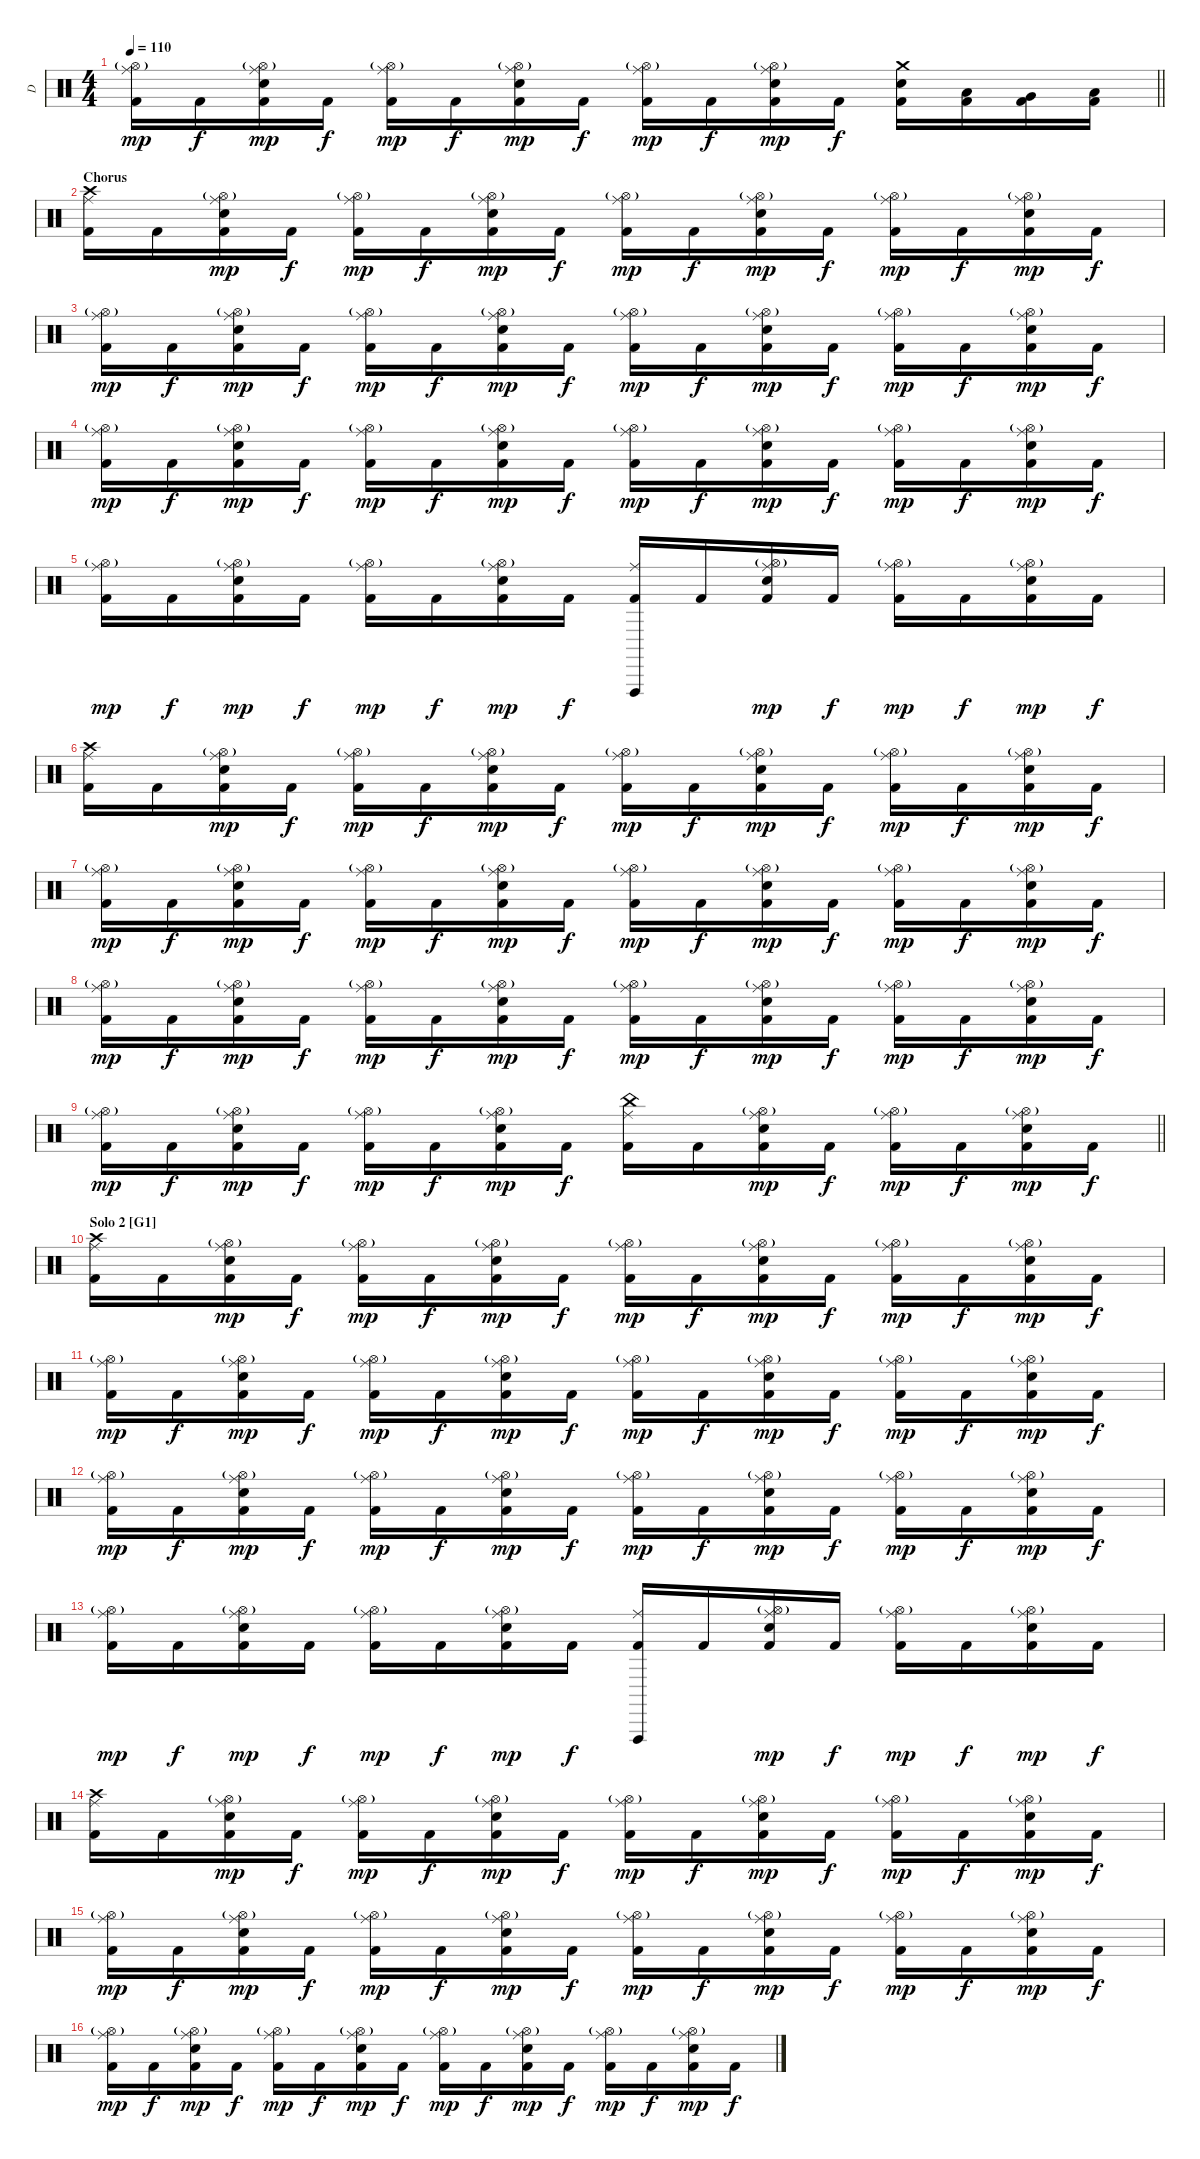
\track ("D" "D") {instrument percussion}
\staff {score}
\articulation defaults
\ts (4 4)
\tempo 110
\clef neutral
\barLineRight lightlight
\ks c
("Ride (middle)" "Hi-Hat (open)"{g} "Kick (hit) 2").16{dy mp} "Kick (hit) 2".16{dy f} ("Ride (middle)" "Hi-Hat (open)"{g} "Electric Snare (hit)" "Kick (hit) 2").16{dy mp} "Kick (hit) 2".16{dy f} ("Ride (middle)" "Hi-Hat (open)"{g} "Kick (hit) 2").16{dy mp} "Kick (hit) 2".16{dy f} ("Ride (middle)" "Hi-Hat (open)"{g} "Electric Snare (hit)" "Kick (hit) 2").16{dy mp} "Kick (hit) 2".16{dy f} ("Ride (middle)" "Hi-Hat (open)"{g} "Kick (hit) 2").16{dy mp} "Kick (hit) 2".16{dy f} ("Ride (middle)" "Hi-Hat (open)"{g} "Electric Snare (hit)" "Kick (hit) 2").16{dy mp} "Kick (hit) 2".16{dy f} ("Crash medium (hit)" "Electric Snare (hit)" "Kick (hit) 2").16 ("Low Tom (hit)" "Kick (hit) 2").16 ("Very Low Tom (hit)" "Kick (hit) 2").16 ("Low Floor Tom (hit)" "Kick (hit) 2").16 |
\section ("" "Chorus")
("Crash high (hit)" "Ride (middle)" "Kick (hit) 2").16 "Kick (hit) 2".16 ("Ride (middle)" "Hi-Hat (open)"{g} "Electric Snare (hit)" "Kick (hit) 2").16{dy mp} "Kick (hit) 2".16{dy f} ("Ride (middle)" "Hi-Hat (open)"{g} "Kick (hit) 2").16{dy mp} "Kick (hit) 2".16{dy f} ("Ride (middle)" "Hi-Hat (open)"{g} "Electric Snare (hit)" "Kick (hit) 2").16{dy mp} "Kick (hit) 2".16{dy f} ("Ride (middle)" "Hi-Hat (open)"{g} "Kick (hit) 2").16{dy mp} "Kick (hit) 2".16{dy f} ("Ride (middle)" "Hi-Hat (open)"{g} "Electric Snare (hit)" "Kick (hit) 2").16{dy mp} "Kick (hit) 2".16{dy f} ("Ride (middle)" "Hi-Hat (open)"{g} "Kick (hit) 2").16{dy mp} "Kick (hit) 2".16{dy f} ("Ride (middle)" "Hi-Hat (open)"{g} "Electric Snare (hit)" "Kick (hit) 2").16{dy mp} "Kick (hit) 2".16{dy f} |
("Ride (middle)" "Hi-Hat (open)"{g} "Kick (hit) 2").16{dy mp} "Kick (hit) 2".16{dy f} ("Ride (middle)" "Hi-Hat (open)"{g} "Electric Snare (hit)" "Kick (hit) 2").16{dy mp} "Kick (hit) 2".16{dy f} ("Ride (middle)" "Hi-Hat (open)"{g} "Kick (hit) 2").16{dy mp} "Kick (hit) 2".16{dy f} ("Ride (middle)" "Hi-Hat (open)"{g} "Electric Snare (hit)" "Kick (hit) 2").16{dy mp} "Kick (hit) 2".16{dy f} ("Ride (middle)" "Hi-Hat (open)"{g} "Kick (hit) 2").16{dy mp} "Kick (hit) 2".16{dy f} ("Ride (middle)" "Hi-Hat (open)"{g} "Electric Snare (hit)" "Kick (hit) 2").16{dy mp} "Kick (hit) 2".16{dy f} ("Ride (middle)" "Hi-Hat (open)"{g} "Kick (hit) 2").16{dy mp} "Kick (hit) 2".16{dy f} ("Ride (middle)" "Hi-Hat (open)"{g} "Electric Snare (hit)" "Kick (hit) 2").16{dy mp} "Kick (hit) 2".16{dy f} |
("Ride (middle)" "Hi-Hat (open)"{g} "Kick (hit) 2").16{dy mp} "Kick (hit) 2".16{dy f} ("Ride (middle)" "Hi-Hat (open)"{g} "Electric Snare (hit)" "Kick (hit) 2").16{dy mp} "Kick (hit) 2".16{dy f} ("Ride (middle)" "Hi-Hat (open)"{g} "Kick (hit) 2").16{dy mp} "Kick (hit) 2".16{dy f} ("Ride (middle)" "Hi-Hat (open)"{g} "Electric Snare (hit)" "Kick (hit) 2").16{dy mp} "Kick (hit) 2".16{dy f} ("Ride (middle)" "Hi-Hat (open)"{g} "Kick (hit) 2").16{dy mp} "Kick (hit) 2".16{dy f} ("Ride (middle)" "Hi-Hat (open)"{g} "Electric Snare (hit)" "Kick (hit) 2").16{dy mp} "Kick (hit) 2".16{dy f} ("Ride (middle)" "Hi-Hat (open)"{g} "Kick (hit) 2").16{dy mp} "Kick (hit) 2".16{dy f} ("Ride (middle)" "Hi-Hat (open)"{g} "Electric Snare (hit)" "Kick (hit) 2").16{dy mp} "Kick (hit) 2".16{dy f} |
("Ride (middle)" "Hi-Hat (open)"{g} "Kick (hit) 2").16{dy mp} "Kick (hit) 2".16{dy f} ("Ride (middle)" "Hi-Hat (open)"{g} "Electric Snare (hit)" "Kick (hit) 2").16{dy mp} "Kick (hit) 2".16{dy f} ("Ride (middle)" "Hi-Hat (open)"{g} "Kick (hit) 2").16{dy mp} "Kick (hit) 2".16{dy f} ("Ride (middle)" "Hi-Hat (open)"{g} "Electric Snare (hit)" "Kick (hit) 2").16{dy mp} "Kick (hit) 2".16{dy f} ("Ride (middle)" "Vibraslap (hit)" "Kick (hit) 2").16 "Kick (hit) 2".16 ("Ride (middle)" "Hi-Hat (open)"{g} "Electric Snare (hit)" "Kick (hit) 2").16{dy mp} "Kick (hit) 2".16{dy f} ("Ride (middle)" "Hi-Hat (open)"{g} "Kick (hit) 2").16{dy mp} "Kick (hit) 2".16{dy f} ("Ride (middle)" "Hi-Hat (open)"{g} "Electric Snare (hit)" "Kick (hit) 2").16{dy mp} "Kick (hit) 2".16{dy f} |
("Crash high (hit)" "Ride (middle)" "Kick (hit) 2").16 "Kick (hit) 2".16 ("Ride (middle)" "Hi-Hat (open)"{g} "Electric Snare (hit)" "Kick (hit) 2").16{dy mp} "Kick (hit) 2".16{dy f} ("Ride (middle)" "Hi-Hat (open)"{g} "Kick (hit) 2").16{dy mp} "Kick (hit) 2".16{dy f} ("Ride (middle)" "Hi-Hat (open)"{g} "Electric Snare (hit)" "Kick (hit) 2").16{dy mp} "Kick (hit) 2".16{dy f} ("Ride (middle)" "Hi-Hat (open)"{g} "Kick (hit) 2").16{dy mp} "Kick (hit) 2".16{dy f} ("Ride (middle)" "Hi-Hat (open)"{g} "Electric Snare (hit)" "Kick (hit) 2").16{dy mp} "Kick (hit) 2".16{dy f} ("Ride (middle)" "Hi-Hat (open)"{g} "Kick (hit) 2").16{dy mp} "Kick (hit) 2".16{dy f} ("Ride (middle)" "Hi-Hat (open)"{g} "Electric Snare (hit)" "Kick (hit) 2").16{dy mp} "Kick (hit) 2".16{dy f} |
("Ride (middle)" "Hi-Hat (open)"{g} "Kick (hit) 2").16{dy mp} "Kick (hit) 2".16{dy f} ("Ride (middle)" "Hi-Hat (open)"{g} "Electric Snare (hit)" "Kick (hit) 2").16{dy mp} "Kick (hit) 2".16{dy f} ("Ride (middle)" "Hi-Hat (open)"{g} "Kick (hit) 2").16{dy mp} "Kick (hit) 2".16{dy f} ("Ride (middle)" "Hi-Hat (open)"{g} "Electric Snare (hit)" "Kick (hit) 2").16{dy mp} "Kick (hit) 2".16{dy f} ("Ride (middle)" "Hi-Hat (open)"{g} "Kick (hit) 2").16{dy mp} "Kick (hit) 2".16{dy f} ("Ride (middle)" "Hi-Hat (open)"{g} "Electric Snare (hit)" "Kick (hit) 2").16{dy mp} "Kick (hit) 2".16{dy f} ("Ride (middle)" "Hi-Hat (open)"{g} "Kick (hit) 2").16{dy mp} "Kick (hit) 2".16{dy f} ("Ride (middle)" "Hi-Hat (open)"{g} "Electric Snare (hit)" "Kick (hit) 2").16{dy mp} "Kick (hit) 2".16{dy f} |
("Ride (middle)" "Hi-Hat (open)"{g} "Kick (hit) 2").16{dy mp} "Kick (hit) 2".16{dy f} ("Ride (middle)" "Hi-Hat (open)"{g} "Electric Snare (hit)" "Kick (hit) 2").16{dy mp} "Kick (hit) 2".16{dy f} ("Ride (middle)" "Hi-Hat (open)"{g} "Kick (hit) 2").16{dy mp} "Kick (hit) 2".16{dy f} ("Ride (middle)" "Hi-Hat (open)"{g} "Electric Snare (hit)" "Kick (hit) 2").16{dy mp} "Kick (hit) 2".16{dy f} ("Ride (middle)" "Hi-Hat (open)"{g} "Kick (hit) 2").16{dy mp} "Kick (hit) 2".16{dy f} ("Ride (middle)" "Hi-Hat (open)"{g} "Electric Snare (hit)" "Kick (hit) 2").16{dy mp} "Kick (hit) 2".16{dy f} ("Ride (middle)" "Hi-Hat (open)"{g} "Kick (hit) 2").16{dy mp} "Kick (hit) 2".16{dy f} ("Ride (middle)" "Hi-Hat (open)"{g} "Electric Snare (hit)" "Kick (hit) 2").16{dy mp} "Kick (hit) 2".16{dy f} |
\barLineRight lightlight
("Ride (middle)" "Hi-Hat (open)"{g} "Kick (hit) 2").16{dy mp} "Kick (hit) 2".16{dy f} ("Ride (middle)" "Hi-Hat (open)"{g} "Electric Snare (hit)" "Kick (hit) 2").16{dy mp} "Kick (hit) 2".16{dy f} ("Ride (middle)" "Hi-Hat (open)"{g} "Kick (hit) 2").16{dy mp} "Kick (hit) 2".16{dy f} ("Ride (middle)" "Hi-Hat (open)"{g} "Electric Snare (hit)" "Kick (hit) 2").16{dy mp} "Kick (hit) 2".16{dy f} ("Ride (middle)" "China (hit)" "Kick (hit) 2").16 "Kick (hit) 2".16 ("Ride (middle)" "Hi-Hat (open)"{g} "Electric Snare (hit)" "Kick (hit) 2").16{dy mp} "Kick (hit) 2".16{dy f} ("Ride (middle)" "Hi-Hat (open)"{g} "Kick (hit) 2").16{dy mp} "Kick (hit) 2".16{dy f} ("Ride (middle)" "Hi-Hat (open)"{g} "Electric Snare (hit)" "Kick (hit) 2").16{dy mp} "Kick (hit) 2".16{dy f} |
\section ("" "Solo 2 [G1]")
("Crash high (hit)" "Ride (middle)" "Kick (hit) 2").16 "Kick (hit) 2".16 ("Ride (middle)" "Hi-Hat (open)"{g} "Electric Snare (hit)" "Kick (hit) 2").16{dy mp} "Kick (hit) 2".16{dy f} ("Ride (middle)" "Hi-Hat (open)"{g} "Kick (hit) 2").16{dy mp} "Kick (hit) 2".16{dy f} ("Ride (middle)" "Hi-Hat (open)"{g} "Electric Snare (hit)" "Kick (hit) 2").16{dy mp} "Kick (hit) 2".16{dy f} ("Ride (middle)" "Hi-Hat (open)"{g} "Kick (hit) 2").16{dy mp} "Kick (hit) 2".16{dy f} ("Ride (middle)" "Hi-Hat (open)"{g} "Electric Snare (hit)" "Kick (hit) 2").16{dy mp} "Kick (hit) 2".16{dy f} ("Ride (middle)" "Hi-Hat (open)"{g} "Kick (hit) 2").16{dy mp} "Kick (hit) 2".16{dy f} ("Ride (middle)" "Hi-Hat (open)"{g} "Electric Snare (hit)" "Kick (hit) 2").16{dy mp} "Kick (hit) 2".16{dy f} |
("Ride (middle)" "Hi-Hat (open)"{g} "Kick (hit) 2").16{dy mp} "Kick (hit) 2".16{dy f} ("Ride (middle)" "Hi-Hat (open)"{g} "Electric Snare (hit)" "Kick (hit) 2").16{dy mp} "Kick (hit) 2".16{dy f} ("Ride (middle)" "Hi-Hat (open)"{g} "Kick (hit) 2").16{dy mp} "Kick (hit) 2".16{dy f} ("Ride (middle)" "Hi-Hat (open)"{g} "Electric Snare (hit)" "Kick (hit) 2").16{dy mp} "Kick (hit) 2".16{dy f} ("Ride (middle)" "Hi-Hat (open)"{g} "Kick (hit) 2").16{dy mp} "Kick (hit) 2".16{dy f} ("Ride (middle)" "Hi-Hat (open)"{g} "Electric Snare (hit)" "Kick (hit) 2").16{dy mp} "Kick (hit) 2".16{dy f} ("Ride (middle)" "Hi-Hat (open)"{g} "Kick (hit) 2").16{dy mp} "Kick (hit) 2".16{dy f} ("Ride (middle)" "Hi-Hat (open)"{g} "Electric Snare (hit)" "Kick (hit) 2").16{dy mp} "Kick (hit) 2".16{dy f} |
("Ride (middle)" "Hi-Hat (open)"{g} "Kick (hit) 2").16{dy mp} "Kick (hit) 2".16{dy f} ("Ride (middle)" "Hi-Hat (open)"{g} "Electric Snare (hit)" "Kick (hit) 2").16{dy mp} "Kick (hit) 2".16{dy f} ("Ride (middle)" "Hi-Hat (open)"{g} "Kick (hit) 2").16{dy mp} "Kick (hit) 2".16{dy f} ("Ride (middle)" "Hi-Hat (open)"{g} "Electric Snare (hit)" "Kick (hit) 2").16{dy mp} "Kick (hit) 2".16{dy f} ("Ride (middle)" "Hi-Hat (open)"{g} "Kick (hit) 2").16{dy mp} "Kick (hit) 2".16{dy f} ("Ride (middle)" "Hi-Hat (open)"{g} "Electric Snare (hit)" "Kick (hit) 2").16{dy mp} "Kick (hit) 2".16{dy f} ("Ride (middle)" "Hi-Hat (open)"{g} "Kick (hit) 2").16{dy mp} "Kick (hit) 2".16{dy f} ("Ride (middle)" "Hi-Hat (open)"{g} "Electric Snare (hit)" "Kick (hit) 2").16{dy mp} "Kick (hit) 2".16{dy f} |
("Ride (middle)" "Hi-Hat (open)"{g} "Kick (hit) 2").16{dy mp} "Kick (hit) 2".16{dy f} ("Ride (middle)" "Hi-Hat (open)"{g} "Electric Snare (hit)" "Kick (hit) 2").16{dy mp} "Kick (hit) 2".16{dy f} ("Ride (middle)" "Hi-Hat (open)"{g} "Kick (hit) 2").16{dy mp} "Kick (hit) 2".16{dy f} ("Ride (middle)" "Hi-Hat (open)"{g} "Electric Snare (hit)" "Kick (hit) 2").16{dy mp} "Kick (hit) 2".16{dy f} ("Ride (middle)" "Vibraslap (hit)" "Kick (hit) 2").16 "Kick (hit) 2".16 ("Ride (middle)" "Hi-Hat (open)"{g} "Electric Snare (hit)" "Kick (hit) 2").16{dy mp} "Kick (hit) 2".16{dy f} ("Ride (middle)" "Hi-Hat (open)"{g} "Kick (hit) 2").16{dy mp} "Kick (hit) 2".16{dy f} ("Ride (middle)" "Hi-Hat (open)"{g} "Electric Snare (hit)" "Kick (hit) 2").16{dy mp} "Kick (hit) 2".16{dy f} |
("Crash high (hit)" "Ride (middle)" "Kick (hit) 2").16 "Kick (hit) 2".16 ("Ride (middle)" "Hi-Hat (open)"{g} "Electric Snare (hit)" "Kick (hit) 2").16{dy mp} "Kick (hit) 2".16{dy f} ("Ride (middle)" "Hi-Hat (open)"{g} "Kick (hit) 2").16{dy mp} "Kick (hit) 2".16{dy f} ("Ride (middle)" "Hi-Hat (open)"{g} "Electric Snare (hit)" "Kick (hit) 2").16{dy mp} "Kick (hit) 2".16{dy f} ("Ride (middle)" "Hi-Hat (open)"{g} "Kick (hit) 2").16{dy mp} "Kick (hit) 2".16{dy f} ("Ride (middle)" "Hi-Hat (open)"{g} "Electric Snare (hit)" "Kick (hit) 2").16{dy mp} "Kick (hit) 2".16{dy f} ("Ride (middle)" "Hi-Hat (open)"{g} "Kick (hit) 2").16{dy mp} "Kick (hit) 2".16{dy f} ("Ride (middle)" "Hi-Hat (open)"{g} "Electric Snare (hit)" "Kick (hit) 2").16{dy mp} "Kick (hit) 2".16{dy f} |
("Ride (middle)" "Hi-Hat (open)"{g} "Kick (hit) 2").16{dy mp} "Kick (hit) 2".16{dy f} ("Ride (middle)" "Hi-Hat (open)"{g} "Electric Snare (hit)" "Kick (hit) 2").16{dy mp} "Kick (hit) 2".16{dy f} ("Ride (middle)" "Hi-Hat (open)"{g} "Kick (hit) 2").16{dy mp} "Kick (hit) 2".16{dy f} ("Ride (middle)" "Hi-Hat (open)"{g} "Electric Snare (hit)" "Kick (hit) 2").16{dy mp} "Kick (hit) 2".16{dy f} ("Ride (middle)" "Hi-Hat (open)"{g} "Kick (hit) 2").16{dy mp} "Kick (hit) 2".16{dy f} ("Ride (middle)" "Hi-Hat (open)"{g} "Electric Snare (hit)" "Kick (hit) 2").16{dy mp} "Kick (hit) 2".16{dy f} ("Ride (middle)" "Hi-Hat (open)"{g} "Kick (hit) 2").16{dy mp} "Kick (hit) 2".16{dy f} ("Ride (middle)" "Hi-Hat (open)"{g} "Electric Snare (hit)" "Kick (hit) 2").16{dy mp} "Kick (hit) 2".16{dy f} |
("Ride (middle)" "Hi-Hat (open)"{g} "Kick (hit) 2").16{dy mp} "Kick (hit) 2".16{dy f} ("Ride (middle)" "Hi-Hat (open)"{g} "Electric Snare (hit)" "Kick (hit) 2").16{dy mp} "Kick (hit) 2".16{dy f} ("Ride (middle)" "Hi-Hat (open)"{g} "Kick (hit) 2").16{dy mp} "Kick (hit) 2".16{dy f} ("Ride (middle)" "Hi-Hat (open)"{g} "Electric Snare (hit)" "Kick (hit) 2").16{dy mp} "Kick (hit) 2".16{dy f} ("Ride (middle)" "Hi-Hat (open)"{g} "Kick (hit) 2").16{dy mp} "Kick (hit) 2".16{dy f} ("Ride (middle)" "Hi-Hat (open)"{g} "Electric Snare (hit)" "Kick (hit) 2").16{dy mp} "Kick (hit) 2".16{dy f} ("Ride (middle)" "Hi-Hat (open)"{g} "Kick (hit) 2").16{dy mp} "Kick (hit) 2".16{dy f} ("Ride (middle)" "Hi-Hat (open)"{g} "Electric Snare (hit)" "Kick (hit) 2").16{dy mp} "Kick (hit) 2".16{dy f}
